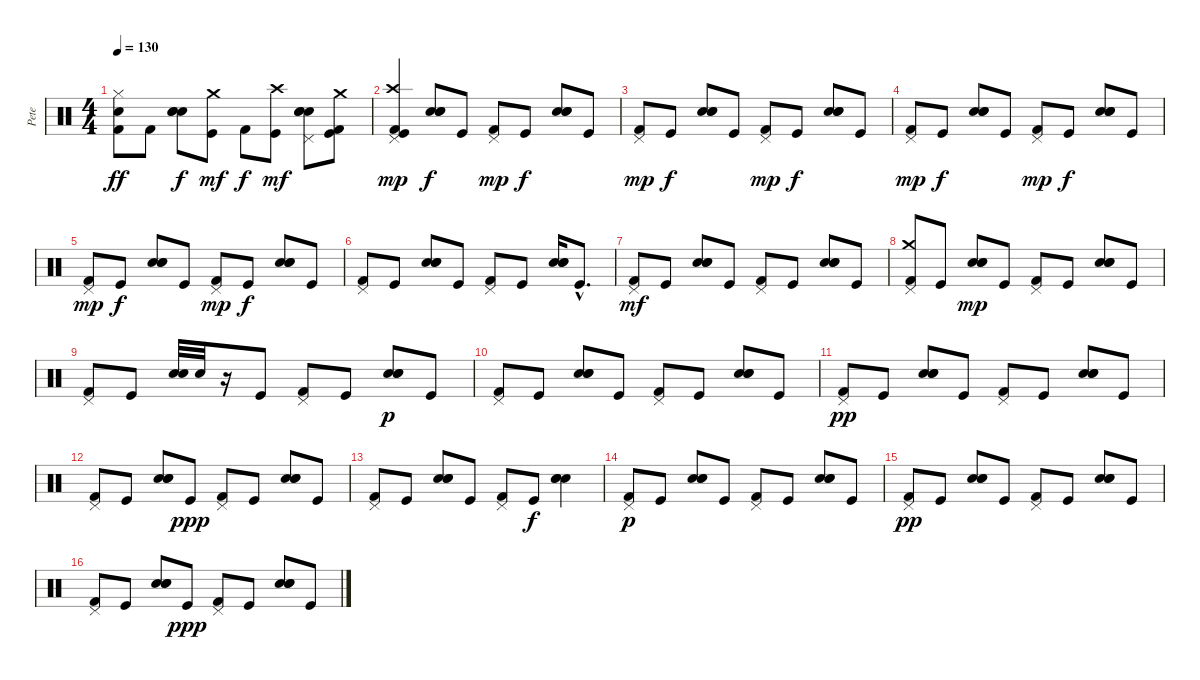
\track ("Pete" "Pete") {instrument percussion}
\staff {score}
\articulation defaults
\ts (4 4)
\tempo 130
\clef neutral
\ks c
("Snare (hit) 2" "Kick (hit) 2" "Hi-Hat (closed)").8{dy ff} "Kick (hit) 2".8 ("Hand Clap (hit)" "Snare (hit) 2" "Electric Snare (hit)").8{dy f} ("Kick (hit)" "Crash medium (hit)").8{dy mf} "Kick (hit) 2".8{dy f} ("Kick (hit)" "Crash high (hit)").8{dy mf} ("Hand Clap (hit)" "Pedal Hi-Hat (hit)" "Snare (hit) 2" "Electric Snare (hit)").8 ("Kick (hit)" "Crash medium (hit)" "Kick (hit) 2").8 |
("Pedal Hi-Hat (hit)" "Kick (hit)" "Crash high (hit)" "Kick (hit) 2").4{dy mp} ("Hand Clap (hit)" "Snare (hit) 2" "Electric Snare (hit)").8{dy f} "Kick (hit)".8 ("Pedal Hi-Hat (hit)" "Kick (hit) 2").8{dy mp} "Kick (hit)".8{dy f} ("Hand Clap (hit)" "Snare (hit) 2" "Electric Snare (hit)").8 "Kick (hit)".8 |
("Pedal Hi-Hat (hit)" "Kick (hit) 2").8{dy mp} "Kick (hit)".8{dy f} ("Hand Clap (hit)" "Snare (hit) 2" "Electric Snare (hit)").8 "Kick (hit)".8 ("Pedal Hi-Hat (hit)" "Kick (hit) 2").8{dy mp} "Kick (hit)".8{dy f} ("Hand Clap (hit)" "Snare (hit) 2" "Electric Snare (hit)").8 "Kick (hit)".8 |
("Pedal Hi-Hat (hit)" "Kick (hit) 2").8{dy mp} "Kick (hit)".8{dy f} ("Hand Clap (hit)" "Snare (hit) 2" "Electric Snare (hit)").8 "Kick (hit)".8 ("Pedal Hi-Hat (hit)" "Kick (hit) 2").8{dy mp} "Kick (hit)".8{dy f} ("Hand Clap (hit)" "Snare (hit) 2" "Electric Snare (hit)").8 "Kick (hit)".8 |
("Pedal Hi-Hat (hit)" "Kick (hit) 2").8{dy mp} "Kick (hit)".8{dy f} ("Hand Clap (hit)" "Snare (hit) 2" "Electric Snare (hit)").8 "Kick (hit)".8 ("Pedal Hi-Hat (hit)" "Kick (hit) 2").8{dy mp} "Kick (hit)".8{dy f} ("Hand Clap (hit)" "Snare (hit) 2" "Electric Snare (hit)").8 "Kick (hit)".8 |
("Pedal Hi-Hat (hit)" "Kick (hit) 2").8 "Kick (hit)".8 ("Hand Clap (hit)" "Snare (hit) 2" "Electric Snare (hit)").8 "Kick (hit)".8 ("Pedal Hi-Hat (hit)" "Kick (hit) 2").8 "Kick (hit)".8 ("Hand Clap (hit)" "Snare (hit) 2" "Electric Snare (hit)").16 "Kick (hit)"{hac}.8{d} |
("Pedal Hi-Hat (hit)" "Kick (hit) 2").8{dy mf} "Kick (hit)".8 ("Hand Clap (hit)" "Snare (hit) 2" "Electric Snare (hit)").8 "Kick (hit)".8 ("Pedal Hi-Hat (hit)" "Kick (hit) 2").8 "Kick (hit)".8 ("Hand Clap (hit)" "Snare (hit) 2" "Electric Snare (hit)").8 "Kick (hit)".8 |
("Pedal Hi-Hat (hit)" "Crash medium (hit)" "Kick (hit) 2").8 "Kick (hit)".8 ("Hand Clap (hit)" "Snare (hit) 2" "Electric Snare (hit)").8{dy mp} "Kick (hit)".8 ("Pedal Hi-Hat (hit)" "Kick (hit) 2").8 "Kick (hit)".8 ("Hand Clap (hit)" "Snare (hit) 2" "Electric Snare (hit)").8 "Kick (hit)".8 |
("Pedal Hi-Hat (hit)" "Kick (hit) 2").8 "Kick (hit)".8 ("Hand Clap (hit)" "Snare (hit) 2").32 "Electric Snare (hit)".32 r.16 "Kick (hit)".8 ("Pedal Hi-Hat (hit)" "Kick (hit) 2").8 "Kick (hit)".8 ("Hand Clap (hit)" "Snare (hit) 2" "Electric Snare (hit)").8{dy p} "Kick (hit)".8 |
("Pedal Hi-Hat (hit)" "Kick (hit) 2").8 "Kick (hit)".8 ("Hand Clap (hit)" "Snare (hit) 2" "Electric Snare (hit)").8 "Kick (hit)".8 ("Pedal Hi-Hat (hit)" "Kick (hit) 2").8 "Kick (hit)".8 ("Hand Clap (hit)" "Snare (hit) 2" "Electric Snare (hit)").8 "Kick (hit)".8 |
("Pedal Hi-Hat (hit)" "Kick (hit) 2").8{dy pp} "Kick (hit)".8 ("Hand Clap (hit)" "Snare (hit) 2" "Electric Snare (hit)").8 "Kick (hit)".8 ("Pedal Hi-Hat (hit)" "Kick (hit) 2").8 "Kick (hit)".8 ("Hand Clap (hit)" "Snare (hit) 2" "Electric Snare (hit)").8 "Kick (hit)".8 |
("Pedal Hi-Hat (hit)" "Kick (hit) 2").8 "Kick (hit)".8 ("Hand Clap (hit)" "Snare (hit) 2" "Electric Snare (hit)").8 "Kick (hit)".8{dy ppp} ("Pedal Hi-Hat (hit)" "Kick (hit) 2").8 "Kick (hit)".8 ("Hand Clap (hit)" "Snare (hit) 2" "Electric Snare (hit)").8 "Kick (hit)".8 |
("Pedal Hi-Hat (hit)" "Kick (hit) 2").8 "Kick (hit)".8 ("Hand Clap (hit)" "Snare (hit) 2" "Electric Snare (hit)").8 "Kick (hit)".8 ("Pedal Hi-Hat (hit)" "Kick (hit) 2").8 "Kick (hit)".8{dy f} ("Hand Clap (hit)" "Snare (hit) 2" "Electric Snare (hit)").4 |
("Pedal Hi-Hat (hit)" "Kick (hit) 2").8{dy p} "Kick (hit)".8 ("Hand Clap (hit)" "Snare (hit) 2" "Electric Snare (hit)").8 "Kick (hit)".8 ("Pedal Hi-Hat (hit)" "Kick (hit) 2").8 "Kick (hit)".8 ("Hand Clap (hit)" "Snare (hit) 2" "Electric Snare (hit)").8 "Kick (hit)".8 |
("Pedal Hi-Hat (hit)" "Kick (hit) 2").8{dy pp} "Kick (hit)".8 ("Hand Clap (hit)" "Snare (hit) 2" "Electric Snare (hit)").8 "Kick (hit)".8 ("Pedal Hi-Hat (hit)" "Kick (hit) 2").8 "Kick (hit)".8 ("Hand Clap (hit)" "Snare (hit) 2" "Electric Snare (hit)").8 "Kick (hit)".8 |
("Pedal Hi-Hat (hit)" "Kick (hit) 2").8 "Kick (hit)".8 ("Hand Clap (hit)" "Snare (hit) 2" "Electric Snare (hit)").8 "Kick (hit)".8{dy ppp} ("Pedal Hi-Hat (hit)" "Kick (hit) 2").8 "Kick (hit)".8 ("Hand Clap (hit)" "Snare (hit) 2" "Electric Snare (hit)").8 "Kick (hit)".8
